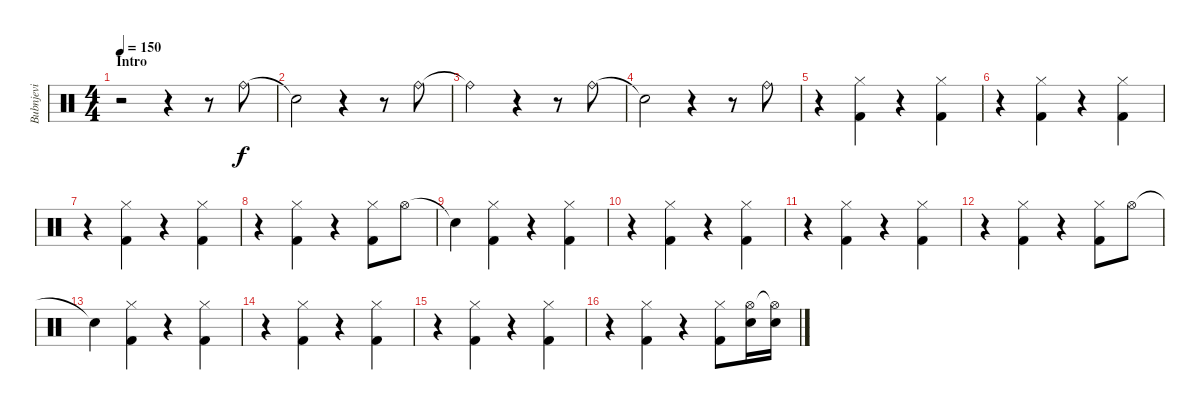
\track ("Bubnjevi" "Bubnjevi") {instrument percussion}
\staff {score}
\articulation defaults
\ts (4 4)
\section ("" "Intro")
\tempo 150
\clef neutral
\ks c
r.2{dy f} r.4 r.8 "Ride (bell)".8 |
"Snare (hit)"{t}.2 r.4 r.8 "Ride (bell)".8 |
"Ride (bell)"{t}.2 r.4 r.8 "Ride (bell)".8 |
"Snare (hit)"{t}.2 r.4 r.8 "Ride (bell)".8 |
r.4 ("Hi-Hat (closed)" "Kick (hit) 2").4 r.4 ("Hi-Hat (closed)" "Kick (hit) 2").4 |
r.4 ("Hi-Hat (closed)" "Kick (hit) 2").4 r.4 ("Hi-Hat (closed)" "Kick (hit) 2").4 |
r.4 ("Hi-Hat (closed)" "Kick (hit) 2").4 r.4 ("Hi-Hat (closed)" "Kick (hit) 2").4 |
r.4 ("Hi-Hat (closed)" "Kick (hit) 2").4 r.4 ("Hi-Hat (closed)" "Kick (hit) 2").8 "Hi-Hat (open)".8 |
"Snare (hit)"{t}.4 ("Hi-Hat (closed)" "Kick (hit) 2").4 r.4 ("Hi-Hat (closed)" "Kick (hit) 2").4 |
r.4 ("Hi-Hat (closed)" "Kick (hit) 2").4 r.4 ("Hi-Hat (closed)" "Kick (hit) 2").4 |
r.4 ("Hi-Hat (closed)" "Kick (hit) 2").4 r.4 ("Hi-Hat (closed)" "Kick (hit) 2").4 |
r.4 ("Hi-Hat (closed)" "Kick (hit) 2").4 r.4 ("Hi-Hat (closed)" "Kick (hit) 2").8 "Hi-Hat (open)".8 |
"Snare (hit)"{t}.4 ("Hi-Hat (closed)" "Kick (hit) 2").4 r.4 ("Hi-Hat (closed)" "Kick (hit) 2").4 |
r.4 ("Hi-Hat (closed)" "Kick (hit) 2").4 r.4 ("Hi-Hat (closed)" "Kick (hit) 2").4 |
r.4 ("Hi-Hat (closed)" "Kick (hit) 2").4 r.4 ("Hi-Hat (closed)" "Kick (hit) 2").4 |
r.4 ("Hi-Hat (closed)" "Kick (hit) 2").4 r.4 ("Hi-Hat (closed)" "Kick (hit) 2").8 ("Hi-Hat (open)" "Snare (hit) 2").16 ("Hi-Hat (open)"{t} "Snare (hit) 2").16
